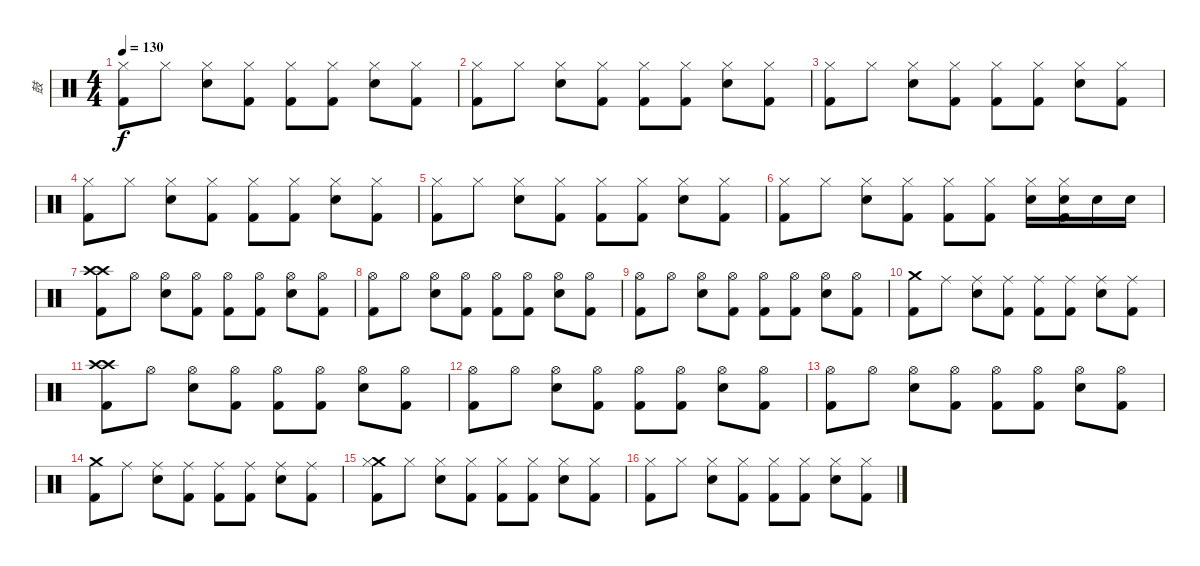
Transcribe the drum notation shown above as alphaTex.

\track ("鼓" "鼓") {instrument percussion}
\staff {score}
\articulation defaults
\ts (4 4)
\tempo 130
\clef neutral
\ks c
("Hi-Hat (closed)" "Kick (hit) 2").8{dy f} "Hi-Hat (closed)".8 ("Hi-Hat (closed)" "Electric Snare (hit)").8 ("Hi-Hat (closed)" "Kick (hit) 2").8 ("Hi-Hat (closed)" "Kick (hit) 2").8 ("Hi-Hat (closed)" "Kick (hit) 2").8 ("Hi-Hat (closed)" "Electric Snare (hit)").8 ("Hi-Hat (closed)" "Kick (hit) 2").8 |
("Hi-Hat (closed)" "Kick (hit) 2").8 "Hi-Hat (closed)".8 ("Hi-Hat (closed)" "Electric Snare (hit)").8 ("Hi-Hat (closed)" "Kick (hit) 2").8 ("Hi-Hat (closed)" "Kick (hit) 2").8 ("Hi-Hat (closed)" "Kick (hit) 2").8 ("Hi-Hat (closed)" "Electric Snare (hit)").8 ("Hi-Hat (closed)" "Kick (hit) 2").8 |
("Hi-Hat (closed)" "Kick (hit) 2").8 "Hi-Hat (closed)".8 ("Hi-Hat (closed)" "Electric Snare (hit)").8 ("Hi-Hat (closed)" "Kick (hit) 2").8 ("Hi-Hat (closed)" "Kick (hit) 2").8 ("Hi-Hat (closed)" "Kick (hit) 2").8 ("Hi-Hat (closed)" "Electric Snare (hit)").8 ("Hi-Hat (closed)" "Kick (hit) 2").8 |
("Hi-Hat (closed)" "Kick (hit) 2").8 "Hi-Hat (closed)".8 ("Hi-Hat (closed)" "Electric Snare (hit)").8 ("Hi-Hat (closed)" "Kick (hit) 2").8 ("Hi-Hat (closed)" "Kick (hit) 2").8 ("Hi-Hat (closed)" "Kick (hit) 2").8 ("Hi-Hat (closed)" "Electric Snare (hit)").8 ("Hi-Hat (closed)" "Kick (hit) 2").8 |
("Hi-Hat (closed)" "Kick (hit) 2").8 "Hi-Hat (closed)".8 ("Hi-Hat (closed)" "Electric Snare (hit)").8 ("Hi-Hat (closed)" "Kick (hit) 2").8 ("Hi-Hat (closed)" "Kick (hit) 2").8 ("Hi-Hat (closed)" "Kick (hit) 2").8 ("Hi-Hat (closed)" "Electric Snare (hit)").8 ("Hi-Hat (closed)" "Kick (hit) 2").8 |
("Hi-Hat (closed)" "Kick (hit) 2").8 "Hi-Hat (closed)".8 ("Hi-Hat (closed)" "Electric Snare (hit)").8 ("Hi-Hat (closed)" "Kick (hit) 2").8 ("Hi-Hat (closed)" "Kick (hit) 2").8 ("Hi-Hat (closed)" "Kick (hit) 2").8 ("Hi-Hat (closed)" "Electric Snare (hit)").16 ("Hi-Hat (closed)" "Electric Snare (hit)" "Kick (hit) 2").16 "Electric Snare (hit)".16 "Electric Snare (hit)".16 |
("Crash high (hit)" "Crash high (hit)" "Kick (hit) 2").8 "Hi-Hat (open)".8 ("Hi-Hat (open)" "Electric Snare (hit)").8 ("Hi-Hat (open)" "Kick (hit) 2").8 ("Hi-Hat (open)" "Kick (hit) 2").8 ("Hi-Hat (open)" "Kick (hit) 2").8 ("Hi-Hat (open)" "Electric Snare (hit)").8 ("Hi-Hat (open)" "Kick (hit) 2").8 |
("Hi-Hat (open)" "Kick (hit) 2").8 "Hi-Hat (open)".8 ("Hi-Hat (open)" "Electric Snare (hit)").8 ("Hi-Hat (open)" "Kick (hit) 2").8 ("Hi-Hat (open)" "Kick (hit) 2").8 ("Hi-Hat (open)" "Kick (hit) 2").8 ("Hi-Hat (open)" "Electric Snare (hit)").8 ("Hi-Hat (open)" "Kick (hit) 2").8 |
("Hi-Hat (open)" "Kick (hit) 2").8 "Hi-Hat (open)".8 ("Hi-Hat (open)" "Electric Snare (hit)").8 ("Hi-Hat (open)" "Kick (hit) 2").8 ("Hi-Hat (open)" "Kick (hit) 2").8 ("Hi-Hat (open)" "Kick (hit) 2").8 ("Hi-Hat (open)" "Electric Snare (hit)").8 ("Hi-Hat (open)" "Kick (hit) 2").8 |
("Crash medium (hit)" "Kick (hit) 2").8 "Ride (middle)".8 ("Ride (middle)" "Electric Snare (hit)").8 ("Ride (middle)" "Kick (hit) 2").8 ("Ride (middle)" "Kick (hit) 2").8 ("Ride (middle)" "Kick (hit) 2").8 ("Ride (middle)" "Electric Snare (hit)").8 ("Ride (middle)" "Kick (hit) 2").8 |
("Crash high (hit)" "Crash high (hit)" "Kick (hit) 2").8 "Hi-Hat (open)".8 ("Hi-Hat (open)" "Electric Snare (hit)").8 ("Hi-Hat (open)" "Kick (hit) 2").8 ("Hi-Hat (open)" "Kick (hit) 2").8 ("Hi-Hat (open)" "Kick (hit) 2").8 ("Hi-Hat (open)" "Electric Snare (hit)").8 ("Hi-Hat (open)" "Kick (hit) 2").8 |
("Hi-Hat (open)" "Kick (hit) 2").8 "Hi-Hat (open)".8 ("Hi-Hat (open)" "Electric Snare (hit)").8 ("Hi-Hat (open)" "Kick (hit) 2").8 ("Hi-Hat (open)" "Kick (hit) 2").8 ("Hi-Hat (open)" "Kick (hit) 2").8 ("Hi-Hat (open)" "Electric Snare (hit)").8 ("Hi-Hat (open)" "Kick (hit) 2").8 |
("Hi-Hat (open)" "Kick (hit) 2").8 "Hi-Hat (open)".8 ("Hi-Hat (open)" "Electric Snare (hit)").8 ("Hi-Hat (open)" "Kick (hit) 2").8 ("Hi-Hat (open)" "Kick (hit) 2").8 ("Hi-Hat (open)" "Kick (hit) 2").8 ("Hi-Hat (open)" "Electric Snare (hit)").8 ("Hi-Hat (open)" "Kick (hit) 2").8 |
("Crash medium (hit)" "Kick (hit) 2").8 "Ride (middle)".8 ("Ride (middle)" "Electric Snare (hit)").8 ("Ride (middle)" "Kick (hit) 2").8 ("Ride (middle)" "Kick (hit) 2").8 ("Ride (middle)" "Kick (hit) 2").8 ("Ride (middle)" "Electric Snare (hit)").8 ("Ride (middle)" "Kick (hit) 2").8 |
("Crash medium (hit)" "Hi-Hat (closed)" "Kick (hit) 2").8 "Hi-Hat (closed)".8 ("Hi-Hat (closed)" "Electric Snare (hit)").8 ("Hi-Hat (closed)" "Kick (hit) 2").8 ("Hi-Hat (closed)" "Kick (hit) 2").8 ("Hi-Hat (closed)" "Kick (hit) 2").8 ("Hi-Hat (closed)" "Electric Snare (hit)").8 ("Hi-Hat (closed)" "Kick (hit) 2").8 |
("Hi-Hat (closed)" "Kick (hit) 2").8 "Hi-Hat (closed)".8 ("Hi-Hat (closed)" "Electric Snare (hit)").8 ("Hi-Hat (closed)" "Kick (hit) 2").8 ("Hi-Hat (closed)" "Kick (hit) 2").8 ("Hi-Hat (closed)" "Kick (hit) 2").8 ("Hi-Hat (closed)" "Electric Snare (hit)").8 ("Hi-Hat (closed)" "Kick (hit) 2").8
